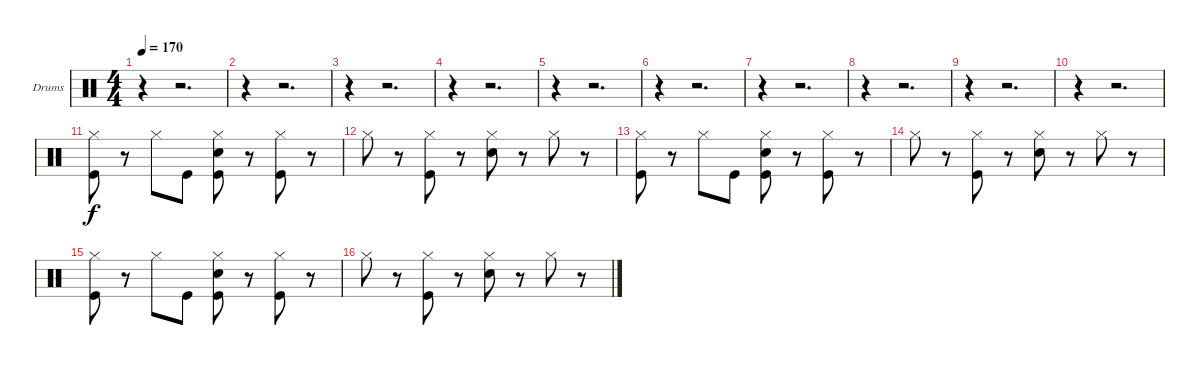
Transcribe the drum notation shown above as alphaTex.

\bracketExtendMode groupsimilarinstruments
\firstSystemTrackNameOrientation horizontal
\otherSystemsTrackNameOrientation horizontal
\track ("Drumkit" "Drums") {instrument percussion}
\staff {score}
\articulation defaults
\ts (4 4)
\tempo 170
\clef neutral
\ks c
r.4{dy f} r.2{d} |
r.4 r.2{d} |
r.4 r.2{d} |
r.4 r.2{d} |
r.4 r.2{d} |
r.4 r.2{d} |
r.4 r.2{d} |
r.4 r.2{d} |
r.4 r.2{d} |
r.4 r.2{d} |
("Hi-Hat (closed)" "Kick (hit)").8 r.8 "Hi-Hat (closed)".8 "Kick (hit)".8 ("Hi-Hat (closed)" "Snare (hit) 2" "Kick (hit)").8 r.8 ("Hi-Hat (closed)" "Kick (hit)").8 r.8 |
"Hi-Hat (closed)".8 r.8 ("Hi-Hat (closed)" "Kick (hit)").8 r.8 ("Hi-Hat (closed)" "Snare (hit) 2").8 r.8 "Hi-Hat (closed)".8 r.8 |
("Hi-Hat (closed)" "Kick (hit)").8 r.8 "Hi-Hat (closed)".8 "Kick (hit)".8 ("Hi-Hat (closed)" "Snare (hit) 2" "Kick (hit)").8 r.8 ("Hi-Hat (closed)" "Kick (hit)").8 r.8 |
"Hi-Hat (closed)".8 r.8 ("Hi-Hat (closed)" "Kick (hit)").8 r.8 ("Hi-Hat (closed)" "Snare (hit) 2").8 r.8 "Hi-Hat (closed)".8 r.8 |
("Hi-Hat (closed)" "Kick (hit)").8 r.8 "Hi-Hat (closed)".8 "Kick (hit)".8 ("Hi-Hat (closed)" "Snare (hit) 2" "Kick (hit)").8 r.8 ("Hi-Hat (closed)" "Kick (hit)").8 r.8 |
"Hi-Hat (closed)".8 r.8 ("Hi-Hat (closed)" "Kick (hit)").8 r.8 ("Hi-Hat (closed)" "Snare (hit) 2").8 r.8 "Hi-Hat (closed)".8 r.8
